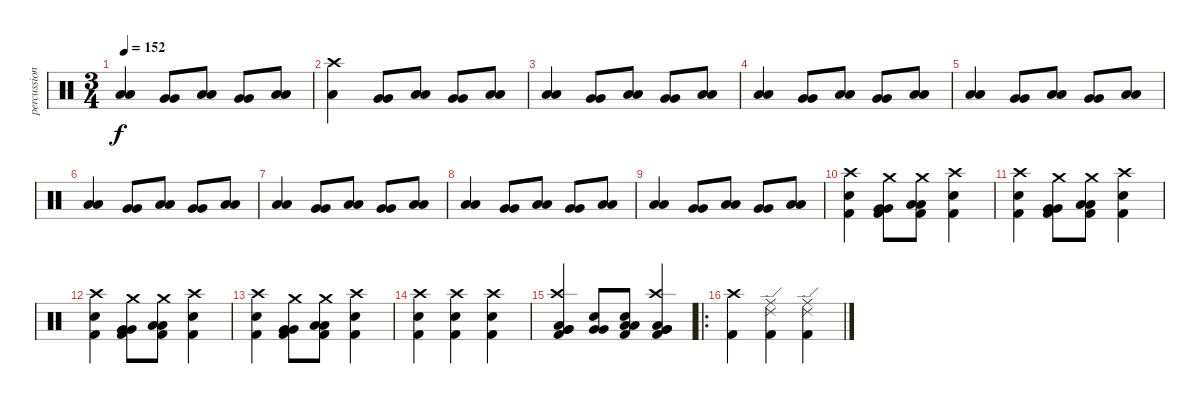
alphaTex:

\track ("percussion" "percussion") {instrument percussion bank 177}
\staff {score}
\articulation defaults
\ts (3 4)
\tempo 152
\clef neutral
\ks c
("Low Tom (hit)" "Low Tom (hit)").4{dy f} ("Very Low Tom (hit)" "Very Low Tom (hit)").8 ("Low Tom (hit)" "Low Tom (hit)").8 ("Very Low Tom (hit)" "Very Low Tom (hit)").8 ("Low Tom (hit)" "Low Tom (hit)").8 |
("Low Tom (hit)" "Crash high (hit)").4 ("Very Low Tom (hit)" "Very Low Tom (hit)").8 ("Low Tom (hit)" "Low Tom (hit)").8 ("Very Low Tom (hit)" "Very Low Tom (hit)").8 ("Low Tom (hit)" "Low Tom (hit)").8 |
("Low Tom (hit)" "Low Tom (hit)").4 ("Very Low Tom (hit)" "Very Low Tom (hit)").8 ("Low Tom (hit)" "Low Tom (hit)").8 ("Very Low Tom (hit)" "Very Low Tom (hit)").8 ("Low Tom (hit)" "Low Tom (hit)").8 |
("Low Tom (hit)" "Low Tom (hit)").4 ("Very Low Tom (hit)" "Very Low Tom (hit)").8 ("Low Tom (hit)" "Low Tom (hit)").8 ("Very Low Tom (hit)" "Very Low Tom (hit)").8 ("Low Tom (hit)" "Low Tom (hit)").8 |
("Low Tom (hit)" "Low Tom (hit)").4 ("Very Low Tom (hit)" "Very Low Tom (hit)").8 ("Low Tom (hit)" "Low Tom (hit)").8 ("Very Low Tom (hit)" "Very Low Tom (hit)").8 ("Low Tom (hit)" "Low Tom (hit)").8 |
("Low Tom (hit)" "Low Tom (hit)").4 ("Very Low Tom (hit)" "Very Low Tom (hit)").8 ("Low Tom (hit)" "Low Tom (hit)").8 ("Very Low Tom (hit)" "Very Low Tom (hit)").8 ("Low Tom (hit)" "Low Tom (hit)").8 |
("Low Tom (hit)" "Low Tom (hit)").4 ("Very Low Tom (hit)" "Very Low Tom (hit)").8 ("Low Tom (hit)" "Low Tom (hit)").8 ("Very Low Tom (hit)" "Very Low Tom (hit)").8 ("Low Tom (hit)" "Low Tom (hit)").8 |
("Low Tom (hit)" "Low Tom (hit)").4 ("Very Low Tom (hit)" "Very Low Tom (hit)").8 ("Low Tom (hit)" "Low Tom (hit)").8 ("Very Low Tom (hit)" "Very Low Tom (hit)").8 ("Low Tom (hit)" "Low Tom (hit)").8 |
("Low Tom (hit)" "Low Tom (hit)").4 ("Very Low Tom (hit)" "Very Low Tom (hit)").8 ("Low Tom (hit)" "Low Tom (hit)").8 ("Very Low Tom (hit)" "Very Low Tom (hit)").8 ("Low Tom (hit)" "Low Tom (hit)").8 |
("Kick (hit) 2" "Electric Snare (hit)" "Crash high (hit)").4 ("Kick (hit) 2" "Very Low Tom (hit)" "Very Low Tom (hit)" "Crash medium (hit)").8 ("Kick (hit) 2" "Low Tom (hit)" "Low Tom (hit)" "Crash medium (hit)").8 ("Kick (hit) 2" "Electric Snare (hit)" "Crash high (hit)").4 |
("Kick (hit) 2" "Electric Snare (hit)" "Crash high (hit)").4 ("Kick (hit) 2" "Very Low Tom (hit)" "Very Low Tom (hit)" "Crash medium (hit)").8 ("Kick (hit) 2" "Low Tom (hit)" "Low Tom (hit)" "Crash medium (hit)").8 ("Kick (hit) 2" "Electric Snare (hit)" "Crash high (hit)").4 |
("Kick (hit) 2" "Electric Snare (hit)" "Crash high (hit)").4 ("Kick (hit) 2" "Very Low Tom (hit)" "Very Low Tom (hit)" "Crash medium (hit)").8 ("Kick (hit) 2" "Low Tom (hit)" "Low Tom (hit)" "Crash medium (hit)").8 ("Kick (hit) 2" "Electric Snare (hit)" "Crash high (hit)").4 |
("Kick (hit) 2" "Electric Snare (hit)" "Crash high (hit)").4 ("Kick (hit) 2" "Very Low Tom (hit)" "Very Low Tom (hit)" "Crash medium (hit)").8 ("Kick (hit) 2" "Low Tom (hit)" "Low Tom (hit)" "Crash medium (hit)").8 ("Kick (hit) 2" "Electric Snare (hit)" "Crash high (hit)").4 |
("Kick (hit) 2" "Electric Snare (hit)" "Crash high (hit)").4 ("Kick (hit) 2" "Electric Snare (hit)" "Crash high (hit)").4 ("Kick (hit) 2" "Electric Snare (hit)" "Crash high (hit)").4 |
("Kick (hit) 2" "Very Low Tom (hit)" "Very Low Tom (hit)" "Low Tom (hit)" "Crash high (hit)").4 ("Electric Snare (hit)" "Very Low Tom (hit)" "Very Low Tom (hit)").8 ("Kick (hit) 2" "Electric Snare (hit)" "Low Tom (hit)" "Low Tom (hit)").8 ("Kick (hit) 2" "Very Low Tom (hit)" "Very Low Tom (hit)" "Low Tom (hit)" "Crash high (hit)").4 |
\ro
("Kick (hit) 2" "Crash high (hit)").4 ("Kick (hit) 2" "Ride (edge) 2" "Ride (middle)").4 ("Kick (hit) 2" "Ride (edge) 2" "Ride (middle)").4
